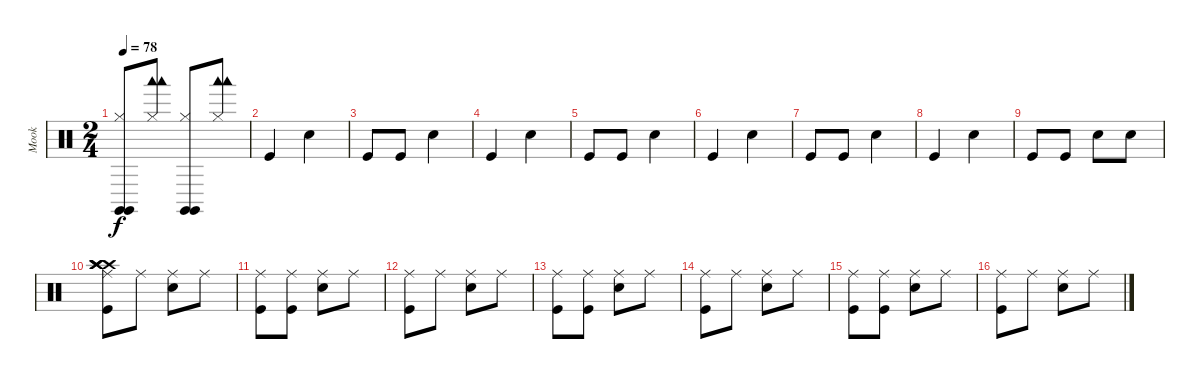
\track ("Mook" "Mook") {instrument percussion}
\staff {score}
\articulation defaults
\ts (2 4)
\tempo 78
\clef neutral
\ks c
("Hi-Hat (closed)" "Claves (hit)" "Claves (hit)").8{dy f} ("Hi-Hat (closed)" "Woodblock low (hit)" "Woodblock low (hit)").8 ("Hi-Hat (closed)" "Claves (hit)" "Claves (hit)").8 ("Hi-Hat (closed)" "Woodblock low (hit)" "Woodblock low (hit)").8 |
"Kick (hit)".4 "Metronome (bell)".4 |
"Kick (hit)".8 "Kick (hit)".8 "Metronome (bell)".4 |
"Kick (hit)".4 "Metronome (bell)".4 |
"Kick (hit)".8 "Kick (hit)".8 "Metronome (bell)".4 |
"Kick (hit)".4 "Metronome (bell)".4 |
"Kick (hit)".8 "Kick (hit)".8 "Metronome (bell)".4 |
"Kick (hit)".4 "Metronome (bell)".4 |
"Kick (hit)".8 "Kick (hit)".8 "Metronome (bell)".8 "Metronome (bell)".8 |
("Ride (middle)" "Kick (hit)" "Crash high (hit)" "Crash high (hit)" "Crash high (hit)" "Crash high (hit)").8 "Ride (middle)".8 ("Ride (middle)" "Metronome (bell)").8 "Ride (middle)".8 |
("Ride (middle)" "Kick (hit)").8 ("Ride (middle)" "Kick (hit)").8 ("Ride (middle)" "Metronome (bell)").8 "Ride (middle)".8 |
("Ride (middle)" "Kick (hit)").8 "Ride (middle)".8 ("Ride (middle)" "Metronome (bell)").8 "Ride (middle)".8 |
("Ride (middle)" "Kick (hit)").8 ("Ride (middle)" "Kick (hit)").8 ("Ride (middle)" "Metronome (bell)").8 "Ride (middle)".8 |
("Ride (middle)" "Kick (hit)").8 "Ride (middle)".8 ("Ride (middle)" "Metronome (bell)").8 "Ride (middle)".8 |
("Ride (middle)" "Kick (hit)").8 ("Ride (middle)" "Kick (hit)").8 ("Ride (middle)" "Metronome (bell)").8 "Ride (middle)".8 |
("Ride (middle)" "Kick (hit)").8 "Ride (middle)".8 ("Ride (middle)" "Metronome (bell)").8 "Ride (middle)".8
